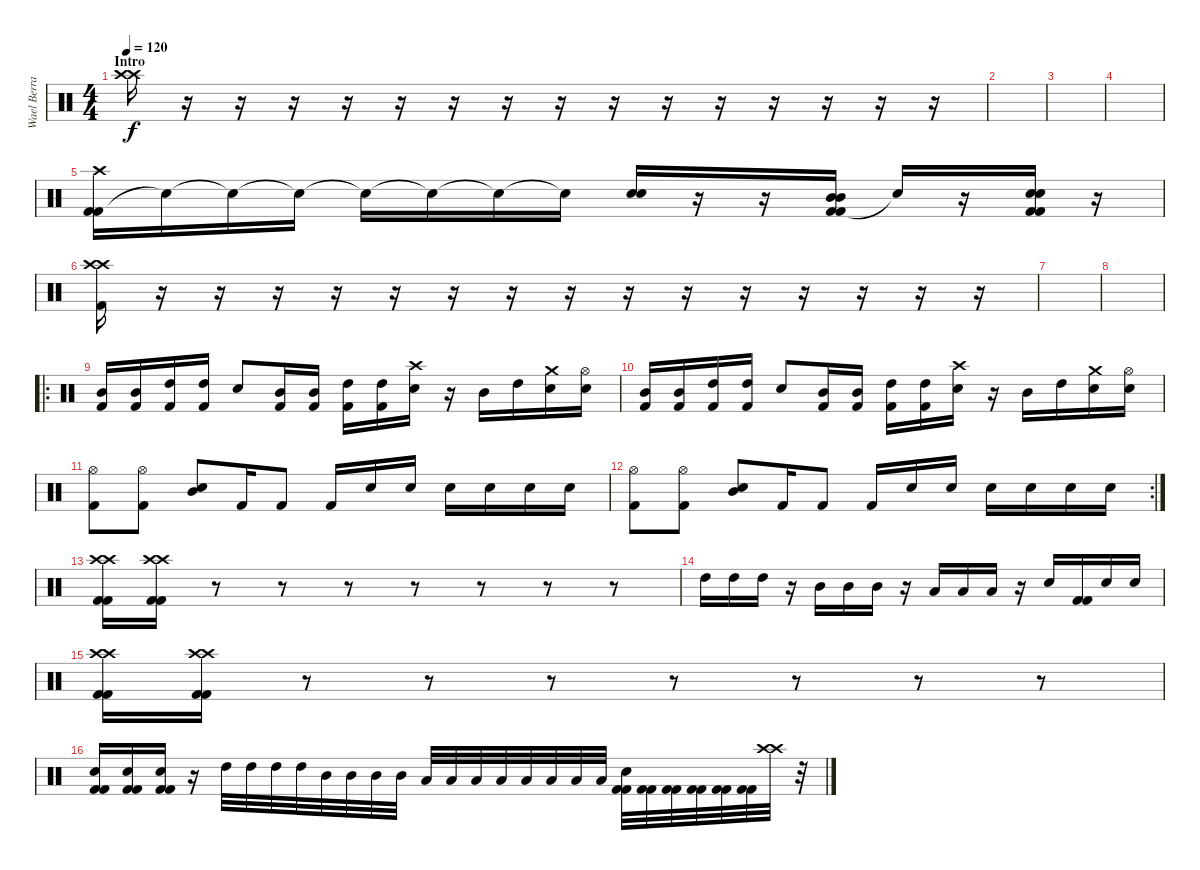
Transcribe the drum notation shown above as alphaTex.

\track ("Wael Berrais" "Wael Berra") {instrument percussion}
\staff {score}
\articulation defaults
\ts (4 4)
\section ("" "Intro")
\tempo 120
\clef neutral
\ks c
("Crash high (hit)" "Crash high (hit)").16{dy f} r.16 r.16 r.16 r.16 r.16 r.16 r.16 r.16 r.16 r.16 r.16 r.16 r.16 r.16 r.16 |
|
|
|
("Kick (hit) 2" "Kick (hit) 2" "Crash high (hit)").16 "Snare (hit)"{t}.16 "Snare (hit)"{t}.16 "Snare (hit)"{t}.16 "Snare (hit)"{t}.16 "Snare (hit)"{t}.16 "Snare (hit)"{t}.16 "Snare (hit)"{t}.16 ("Electric Snare (hit)" "Electric Snare (hit)").16 r.16 r.16 ("Kick (hit) 2" "Kick (hit) 2" "Mid Tom (hit)" "Mid Tom (hit)").16 "Snare (hit)"{t}.16 r.16 ("Kick (hit) 2" "Kick (hit) 2" "Electric Snare (hit)" "Electric Snare (hit)").16 r.16 |
("Kick (hit) 2" "Crash high (hit)" "Crash high (hit)").16 r.16 r.16 r.16 r.16 r.16 r.16 r.16 r.16 r.16 r.16 r.16 r.16 r.16 r.16 r.16 |
|
|
\ro
("Mid Tom (hit)" "Kick (hit) 2").16 ("Mid Tom (hit)" "Kick (hit) 2").16 ("High Tom (hit)" "Kick (hit) 2").16 ("High Tom (hit)" "Kick (hit) 2").16 "Electric Snare (hit)".8 ("Mid Tom (hit)" "Kick (hit) 2").16 ("Mid Tom (hit)" "Kick (hit) 2").16 ("High Tom (hit)" "Kick (hit) 2").16 ("High Tom (hit)" "Kick (hit) 2").16 ("Electric Snare (hit)" "Crash high (hit)").16 r.16 "Mid Tom (hit)".16 "High Tom (hit)".16 ("Electric Snare (hit)" "Crash medium (hit)").16 ("Hi-Hat (open)" "Electric Snare (hit)").16 |
("Mid Tom (hit)" "Kick (hit) 2").16 ("Mid Tom (hit)" "Kick (hit) 2").16 ("High Tom (hit)" "Kick (hit) 2").16 ("High Tom (hit)" "Kick (hit) 2").16 "Electric Snare (hit)".8 ("Mid Tom (hit)" "Kick (hit) 2").16 ("Mid Tom (hit)" "Kick (hit) 2").16 ("High Tom (hit)" "Kick (hit) 2").16 ("High Tom (hit)" "Kick (hit) 2").16 ("Electric Snare (hit)" "Crash high (hit)").16 r.16 "Mid Tom (hit)".16 "High Tom (hit)".16 ("Electric Snare (hit)" "Crash medium (hit)").16 ("Hi-Hat (open)" "Electric Snare (hit)").16 |
("Hi-Hat (open)" "Kick (hit) 2").8 ("Hi-Hat (open)" "Kick (hit) 2").8 ("Mid Tom (hit)" "Electric Snare (hit)").8 "Kick (hit) 2".16 "Kick (hit) 2".8 "Kick (hit) 2".16 "Electric Snare (hit)".16 "Electric Snare (hit)".16 "Electric Snare (hit)".16 "Electric Snare (hit)".16 "Electric Snare (hit)".16 "Electric Snare (hit)".16 |
\rc 2
("Hi-Hat (open)" "Kick (hit) 2").8 ("Hi-Hat (open)" "Kick (hit) 2").8 ("Mid Tom (hit)" "Electric Snare (hit)").8 "Kick (hit) 2".16 "Kick (hit) 2".8 "Kick (hit) 2".16 "Electric Snare (hit)".16 "Electric Snare (hit)".16 "Electric Snare (hit)".16 "Electric Snare (hit)".16 "Electric Snare (hit)".16 "Electric Snare (hit)".16 |
("Kick (hit) 2" "Kick (hit) 2" "Crash high (hit)" "Crash high (hit)").16 ("Kick (hit) 2" "Kick (hit) 2" "Crash high (hit)" "Crash high (hit)").16 r.8 r.8 r.8 r.8 r.8 r.8 r.8 |
"High Tom (hit)".16 "High Tom (hit)".16 "High Tom (hit)".16 r.16 "Mid Tom (hit)".16 "Mid Tom (hit)".16 "Mid Tom (hit)".16 r.16 "Low Tom (hit)".16 "Low Tom (hit)".16 "Low Tom (hit)".16 r.16 "Electric Snare (hit)".16 ("Kick (hit) 2" "Kick (hit) 2").16 "Electric Snare (hit)".16 "Electric Snare (hit)".16 |
("Kick (hit) 2" "Kick (hit) 2" "Crash high (hit)" "Crash high (hit)").16 ("Kick (hit) 2" "Kick (hit) 2" "Crash high (hit)" "Crash high (hit)").16 r.8 r.8 r.8 r.8 r.8 r.8 r.8 |
("Electric Snare (hit)" "Kick (hit) 2" "Kick (hit) 2").16 ("Electric Snare (hit)" "Kick (hit) 2" "Kick (hit) 2").16 ("Electric Snare (hit)" "Kick (hit) 2" "Kick (hit) 2").16 r.16 "High Tom (hit)".32 "High Tom (hit)".32 "High Tom (hit)".32 "High Tom (hit)".32 "Mid Tom (hit)".32 "Mid Tom (hit)".32 "Mid Tom (hit)".32 "Mid Tom (hit)".32 "Low Tom (hit)".32 "Low Tom (hit)".32 "Low Tom (hit)".32 "Low Tom (hit)".32 "Low Floor Tom (hit)".32 "Low Floor Tom (hit)".32 "Low Floor Tom (hit)".32 "Low Floor Tom (hit)".32 ("Electric Snare (hit)" "Kick (hit) 2" "Kick (hit) 2").32 ("Kick (hit) 2" "Kick (hit) 2").32 ("Kick (hit) 2" "Kick (hit) 2").32 ("Kick (hit) 2" "Kick (hit) 2").32 ("Kick (hit) 2" "Kick (hit) 2").32 ("Kick (hit) 2" "Kick (hit) 2").32 ("Crash high (hit)" "Crash high (hit)").32 r.32
